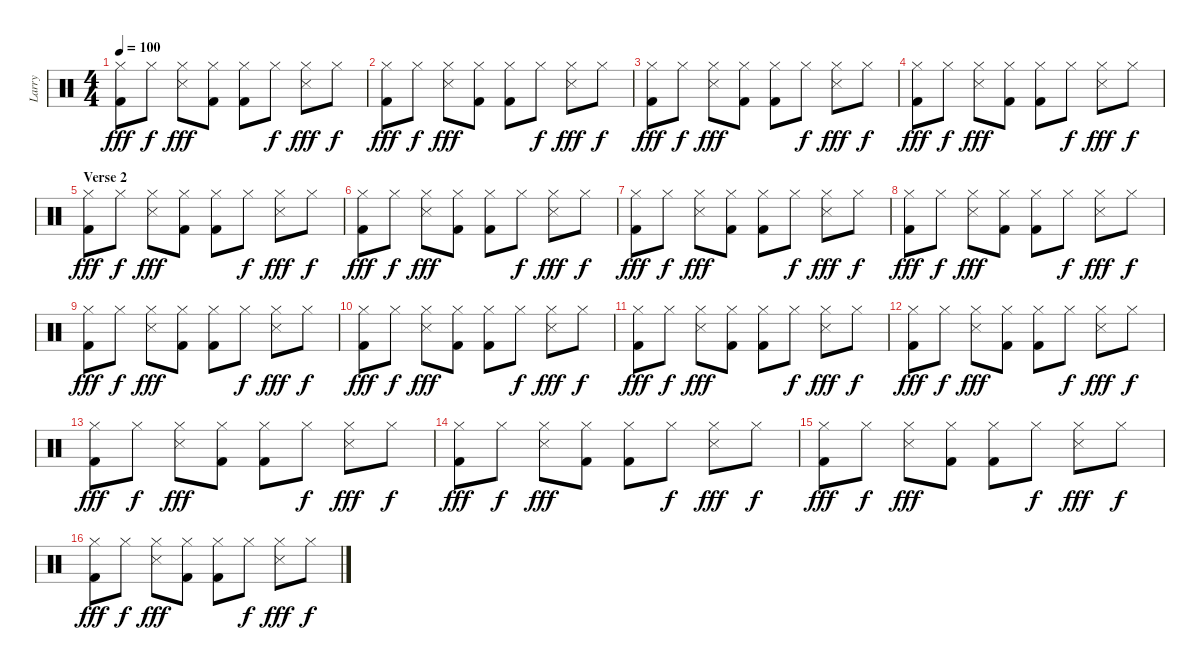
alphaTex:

\track ("Larry" "Larry") {instrument percussion}
\staff {score}
\articulation defaults
\ts (4 4)
\tempo 100
\clef neutral
\ks c
("Kick (hit) 2" "Hi-Hat (closed)").8{dy fff} "Hi-Hat (closed)".8{dy f} ("Snare (side stick) 3" "Hi-Hat (closed)").8{dy fff} ("Kick (hit) 2" "Hi-Hat (closed)").8 ("Kick (hit) 2" "Hi-Hat (closed)").8 "Hi-Hat (closed)".8{dy f} ("Snare (side stick) 3" "Hi-Hat (closed)").8{dy fff} "Hi-Hat (closed)".8{dy f} |
("Hi-Hat (closed)" "Kick (hit) 2").8{dy fff} "Hi-Hat (closed)".8{dy f} ("Hi-Hat (closed)" "Snare (side stick) 3").8{dy fff} ("Hi-Hat (closed)" "Kick (hit) 2").8 ("Hi-Hat (closed)" "Kick (hit) 2").8 "Hi-Hat (closed)".8{dy f} ("Hi-Hat (closed)" "Snare (side stick) 3").8{dy fff} "Hi-Hat (closed)".8{dy f} |
("Kick (hit) 2" "Hi-Hat (closed)").8{dy fff} "Hi-Hat (closed)".8{dy f} ("Snare (side stick) 3" "Hi-Hat (closed)").8{dy fff} ("Kick (hit) 2" "Hi-Hat (closed)").8 ("Kick (hit) 2" "Hi-Hat (closed)").8 "Hi-Hat (closed)".8{dy f} ("Snare (side stick) 3" "Hi-Hat (closed)").8{dy fff} "Hi-Hat (closed)".8{dy f} |
("Kick (hit) 2" "Hi-Hat (closed)").8{dy fff} "Hi-Hat (closed)".8{dy f} ("Snare (side stick) 3" "Hi-Hat (closed)").8{dy fff} ("Kick (hit) 2" "Hi-Hat (closed)").8 ("Kick (hit) 2" "Hi-Hat (closed)").8 "Hi-Hat (closed)".8{dy f} ("Snare (side stick) 3" "Hi-Hat (closed)").8{dy fff} "Hi-Hat (closed)".8{dy f} |
\section ("" "Verse 2")
("Hi-Hat (closed)" "Kick (hit) 2").8{dy fff} "Hi-Hat (closed)".8{dy f} ("Hi-Hat (closed)" "Snare (side stick) 3").8{dy fff} ("Hi-Hat (closed)" "Kick (hit) 2").8 ("Hi-Hat (closed)" "Kick (hit) 2").8 "Hi-Hat (closed)".8{dy f} ("Hi-Hat (closed)" "Snare (side stick) 3").8{dy fff} "Hi-Hat (closed)".8{dy f} |
("Hi-Hat (closed)" "Kick (hit) 2").8{dy fff} "Hi-Hat (closed)".8{dy f} ("Hi-Hat (closed)" "Snare (side stick) 3").8{dy fff} ("Hi-Hat (closed)" "Kick (hit) 2").8 ("Hi-Hat (closed)" "Kick (hit) 2").8 "Hi-Hat (closed)".8{dy f} ("Hi-Hat (closed)" "Snare (side stick) 3").8{dy fff} "Hi-Hat (closed)".8{dy f} |
("Kick (hit) 2" "Hi-Hat (closed)").8{dy fff} "Hi-Hat (closed)".8{dy f} ("Snare (side stick) 3" "Hi-Hat (closed)").8{dy fff} ("Kick (hit) 2" "Hi-Hat (closed)").8 ("Kick (hit) 2" "Hi-Hat (closed)").8 "Hi-Hat (closed)".8{dy f} ("Snare (side stick) 3" "Hi-Hat (closed)").8{dy fff} "Hi-Hat (closed)".8{dy f} |
("Kick (hit) 2" "Hi-Hat (closed)").8{dy fff} "Hi-Hat (closed)".8{dy f} ("Snare (side stick) 3" "Hi-Hat (closed)").8{dy fff} ("Kick (hit) 2" "Hi-Hat (closed)").8 ("Kick (hit) 2" "Hi-Hat (closed)").8 "Hi-Hat (closed)".8{dy f} ("Snare (side stick) 3" "Hi-Hat (closed)").8{dy fff} "Hi-Hat (closed)".8{dy f} |
("Hi-Hat (closed)" "Kick (hit) 2").8{dy fff} "Hi-Hat (closed)".8{dy f} ("Hi-Hat (closed)" "Snare (side stick) 3").8{dy fff} ("Hi-Hat (closed)" "Kick (hit) 2").8 ("Hi-Hat (closed)" "Kick (hit) 2").8 "Hi-Hat (closed)".8{dy f} ("Hi-Hat (closed)" "Snare (side stick) 3").8{dy fff} "Hi-Hat (closed)".8{dy f} |
("Hi-Hat (closed)" "Kick (hit) 2").8{dy fff} "Hi-Hat (closed)".8{dy f} ("Hi-Hat (closed)" "Snare (side stick) 3").8{dy fff} ("Hi-Hat (closed)" "Kick (hit) 2").8 ("Hi-Hat (closed)" "Kick (hit) 2").8 "Hi-Hat (closed)".8{dy f} ("Hi-Hat (closed)" "Snare (side stick) 3").8{dy fff} "Hi-Hat (closed)".8{dy f} |
("Kick (hit) 2" "Hi-Hat (closed)").8{dy fff} "Hi-Hat (closed)".8{dy f} ("Snare (side stick) 3" "Hi-Hat (closed)").8{dy fff} ("Kick (hit) 2" "Hi-Hat (closed)").8 ("Kick (hit) 2" "Hi-Hat (closed)").8 "Hi-Hat (closed)".8{dy f} ("Snare (side stick) 3" "Hi-Hat (closed)").8{dy fff} "Hi-Hat (closed)".8{dy f} |
("Kick (hit) 2" "Hi-Hat (closed)").8{dy fff} "Hi-Hat (closed)".8{dy f} ("Snare (side stick) 3" "Hi-Hat (closed)").8{dy fff} ("Kick (hit) 2" "Hi-Hat (closed)").8 ("Kick (hit) 2" "Hi-Hat (closed)").8 "Hi-Hat (closed)".8{dy f} ("Snare (side stick) 3" "Hi-Hat (closed)").8{dy fff} "Hi-Hat (closed)".8{dy f} |
("Hi-Hat (closed)" "Kick (hit) 2").8{dy fff} "Hi-Hat (closed)".8{dy f} ("Hi-Hat (closed)" "Snare (side stick) 3").8{dy fff} ("Hi-Hat (closed)" "Kick (hit) 2").8 ("Hi-Hat (closed)" "Kick (hit) 2").8 "Hi-Hat (closed)".8{dy f} ("Hi-Hat (closed)" "Snare (side stick) 3").8{dy fff} "Hi-Hat (closed)".8{dy f} |
("Kick (hit) 2" "Hi-Hat (closed)").8{dy fff} "Hi-Hat (closed)".8{dy f} ("Snare (side stick) 3" "Hi-Hat (closed)").8{dy fff} ("Kick (hit) 2" "Hi-Hat (closed)").8 ("Kick (hit) 2" "Hi-Hat (closed)").8 "Hi-Hat (closed)".8{dy f} ("Snare (side stick) 3" "Hi-Hat (closed)").8{dy fff} "Hi-Hat (closed)".8{dy f} |
("Hi-Hat (closed)" "Kick (hit) 2").8{dy fff} "Hi-Hat (closed)".8{dy f} ("Hi-Hat (closed)" "Snare (side stick) 3").8{dy fff} ("Hi-Hat (closed)" "Kick (hit) 2").8 ("Hi-Hat (closed)" "Kick (hit) 2").8 "Hi-Hat (closed)".8{dy f} ("Hi-Hat (closed)" "Snare (side stick) 3").8{dy fff} "Hi-Hat (closed)".8{dy f} |
("Hi-Hat (closed)" "Kick (hit) 2").8{dy fff} "Hi-Hat (closed)".8{dy f} ("Hi-Hat (closed)" "Snare (side stick) 3").8{dy fff} ("Hi-Hat (closed)" "Kick (hit) 2").8 ("Hi-Hat (closed)" "Kick (hit) 2").8 "Hi-Hat (closed)".8{dy f} ("Hi-Hat (closed)" "Snare (side stick) 3").8{dy fff} "Hi-Hat (closed)".8{dy f}
